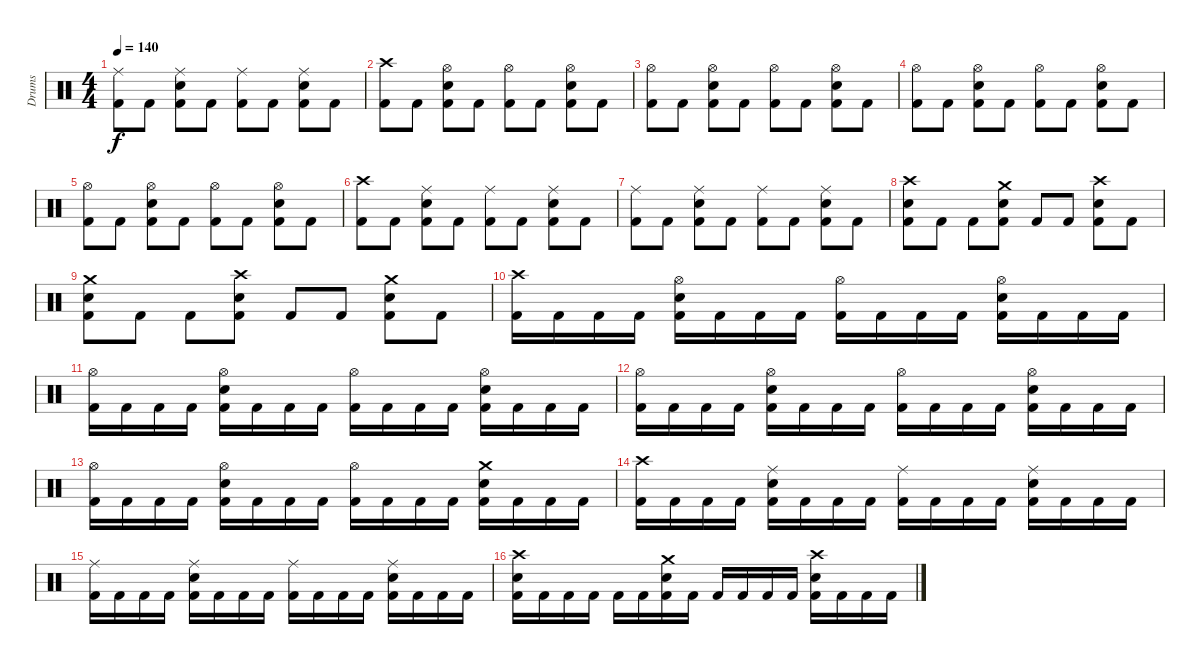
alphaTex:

\track ("Drums" "Drums") {instrument percussion}
\staff {score}
\articulation defaults
\ts (4 4)
\tempo 140
\clef neutral
\ks c
("Ride (middle)" "Kick (hit) 2").8{dy f} "Kick (hit) 2".8 ("Ride (middle)" "Electric Snare (hit)" "Kick (hit) 2").8 "Kick (hit) 2".8 ("Ride (middle)" "Kick (hit) 2").8 "Kick (hit) 2".8 ("Ride (middle)" "Electric Snare (hit)" "Kick (hit) 2").8 "Kick (hit) 2".8 |
("Crash high (hit)" "Kick (hit) 2").8 "Kick (hit) 2".8 ("Hi-Hat (open)" "Electric Snare (hit)" "Kick (hit) 2").8 "Kick (hit) 2".8 ("Hi-Hat (open)" "Kick (hit) 2").8 "Kick (hit) 2".8 ("Hi-Hat (open)" "Electric Snare (hit)" "Kick (hit) 2").8 "Kick (hit) 2".8 |
("Hi-Hat (open)" "Kick (hit) 2").8 "Kick (hit) 2".8 ("Hi-Hat (open)" "Electric Snare (hit)" "Kick (hit) 2").8 "Kick (hit) 2".8 ("Hi-Hat (open)" "Kick (hit) 2").8 "Kick (hit) 2".8 ("Hi-Hat (open)" "Electric Snare (hit)" "Kick (hit) 2").8 "Kick (hit) 2".8 |
("Hi-Hat (open)" "Kick (hit) 2").8 "Kick (hit) 2".8 ("Hi-Hat (open)" "Electric Snare (hit)" "Kick (hit) 2").8 "Kick (hit) 2".8 ("Hi-Hat (open)" "Kick (hit) 2").8 "Kick (hit) 2".8 ("Hi-Hat (open)" "Electric Snare (hit)" "Kick (hit) 2").8 "Kick (hit) 2".8 |
("Hi-Hat (open)" "Kick (hit) 2").8 "Kick (hit) 2".8 ("Hi-Hat (open)" "Electric Snare (hit)" "Kick (hit) 2").8 "Kick (hit) 2".8 ("Hi-Hat (open)" "Kick (hit) 2").8 "Kick (hit) 2".8 ("Hi-Hat (open)" "Electric Snare (hit)" "Kick (hit) 2").8 "Kick (hit) 2".8 |
("Crash high (hit)" "Kick (hit) 2").8 "Kick (hit) 2".8 ("Ride (middle)" "Electric Snare (hit)" "Kick (hit) 2").8 "Kick (hit) 2".8 ("Ride (middle)" "Kick (hit) 2").8 "Kick (hit) 2".8 ("Ride (middle)" "Electric Snare (hit)" "Kick (hit) 2").8 "Kick (hit) 2".8 |
("Ride (middle)" "Kick (hit) 2").8 "Kick (hit) 2".8 ("Ride (middle)" "Electric Snare (hit)" "Kick (hit) 2").8 "Kick (hit) 2".8 ("Ride (middle)" "Kick (hit) 2").8 "Kick (hit) 2".8 ("Ride (middle)" "Electric Snare (hit)" "Kick (hit) 2").8 "Kick (hit) 2".8 |
("Crash high (hit)" "Electric Snare (hit)" "Kick (hit) 2").8 "Kick (hit) 2".8 "Kick (hit) 2".8 ("Crash medium (hit)" "Electric Snare (hit)" "Kick (hit) 2").8 "Kick (hit) 2".8 "Kick (hit) 2".8 ("Crash high (hit)" "Electric Snare (hit)" "Kick (hit) 2").8 "Kick (hit) 2".8 |
("Crash medium (hit)" "Electric Snare (hit)" "Kick (hit) 2").8 "Kick (hit) 2".8 "Kick (hit) 2".8 ("Crash high (hit)" "Electric Snare (hit)" "Kick (hit) 2").8 "Kick (hit) 2".8 "Kick (hit) 2".8 ("Crash medium (hit)" "Electric Snare (hit)" "Kick (hit) 2").8 "Kick (hit) 2".8 |
("Crash high (hit)" "Kick (hit) 2").16 "Kick (hit) 2".16 "Kick (hit) 2".16 "Kick (hit) 2".16 ("Hi-Hat (open)" "Electric Snare (hit)" "Kick (hit) 2").16 "Kick (hit) 2".16 "Kick (hit) 2".16 "Kick (hit) 2".16 ("Hi-Hat (open)" "Kick (hit) 2").16 "Kick (hit) 2".16 "Kick (hit) 2".16 "Kick (hit) 2".16 ("Hi-Hat (open)" "Electric Snare (hit)" "Kick (hit) 2").16 "Kick (hit) 2".16 "Kick (hit) 2".16 "Kick (hit) 2".16 |
("Hi-Hat (open)" "Kick (hit) 2").16 "Kick (hit) 2".16 "Kick (hit) 2".16 "Kick (hit) 2".16 ("Hi-Hat (open)" "Electric Snare (hit)" "Kick (hit) 2").16 "Kick (hit) 2".16 "Kick (hit) 2".16 "Kick (hit) 2".16 ("Hi-Hat (open)" "Kick (hit) 2").16 "Kick (hit) 2".16 "Kick (hit) 2".16 "Kick (hit) 2".16 ("Hi-Hat (open)" "Electric Snare (hit)" "Kick (hit) 2").16 "Kick (hit) 2".16 "Kick (hit) 2".16 "Kick (hit) 2".16 |
("Hi-Hat (open)" "Kick (hit) 2").16 "Kick (hit) 2".16 "Kick (hit) 2".16 "Kick (hit) 2".16 ("Hi-Hat (open)" "Electric Snare (hit)" "Kick (hit) 2").16 "Kick (hit) 2".16 "Kick (hit) 2".16 "Kick (hit) 2".16 ("Hi-Hat (open)" "Kick (hit) 2").16 "Kick (hit) 2".16 "Kick (hit) 2".16 "Kick (hit) 2".16 ("Hi-Hat (open)" "Electric Snare (hit)" "Kick (hit) 2").16 "Kick (hit) 2".16 "Kick (hit) 2".16 "Kick (hit) 2".16 |
("Hi-Hat (open)" "Kick (hit) 2").16 "Kick (hit) 2".16 "Kick (hit) 2".16 "Kick (hit) 2".16 ("Hi-Hat (open)" "Electric Snare (hit)" "Kick (hit) 2").16 "Kick (hit) 2".16 "Kick (hit) 2".16 "Kick (hit) 2".16 ("Hi-Hat (open)" "Kick (hit) 2").16 "Kick (hit) 2".16 "Kick (hit) 2".16 "Kick (hit) 2".16 ("Crash medium (hit)" "Electric Snare (hit)" "Kick (hit) 2").16 "Kick (hit) 2".16 "Kick (hit) 2".16 "Kick (hit) 2".16 |
("Crash high (hit)" "Kick (hit) 2").16 "Kick (hit) 2".16 "Kick (hit) 2".16 "Kick (hit) 2".16 ("Ride (middle)" "Electric Snare (hit)" "Kick (hit) 2").16 "Kick (hit) 2".16 "Kick (hit) 2".16 "Kick (hit) 2".16 ("Ride (middle)" "Kick (hit) 2").16 "Kick (hit) 2".16 "Kick (hit) 2".16 "Kick (hit) 2".16 ("Ride (middle)" "Electric Snare (hit)" "Kick (hit) 2").16 "Kick (hit) 2".16 "Kick (hit) 2".16 "Kick (hit) 2".16 |
("Ride (middle)" "Kick (hit) 2").16 "Kick (hit) 2".16 "Kick (hit) 2".16 "Kick (hit) 2".16 ("Ride (middle)" "Electric Snare (hit)" "Kick (hit) 2").16 "Kick (hit) 2".16 "Kick (hit) 2".16 "Kick (hit) 2".16 ("Ride (middle)" "Kick (hit) 2").16 "Kick (hit) 2".16 "Kick (hit) 2".16 "Kick (hit) 2".16 ("Ride (middle)" "Electric Snare (hit)" "Kick (hit) 2").16 "Kick (hit) 2".16 "Kick (hit) 2".16 "Kick (hit) 2".16 |
("Crash high (hit)" "Electric Snare (hit)" "Kick (hit) 2").16 "Kick (hit) 2".16 "Kick (hit) 2".16 "Kick (hit) 2".16 "Kick (hit) 2".16 "Kick (hit) 2".16 ("Crash medium (hit)" "Electric Snare (hit)" "Kick (hit) 2").16 "Kick (hit) 2".16 "Kick (hit) 2".16 "Kick (hit) 2".16 "Kick (hit) 2".16 "Kick (hit) 2".16 ("Crash high (hit)" "Electric Snare (hit)" "Kick (hit) 2").16 "Kick (hit) 2".16 "Kick (hit) 2".16 "Kick (hit) 2".16
